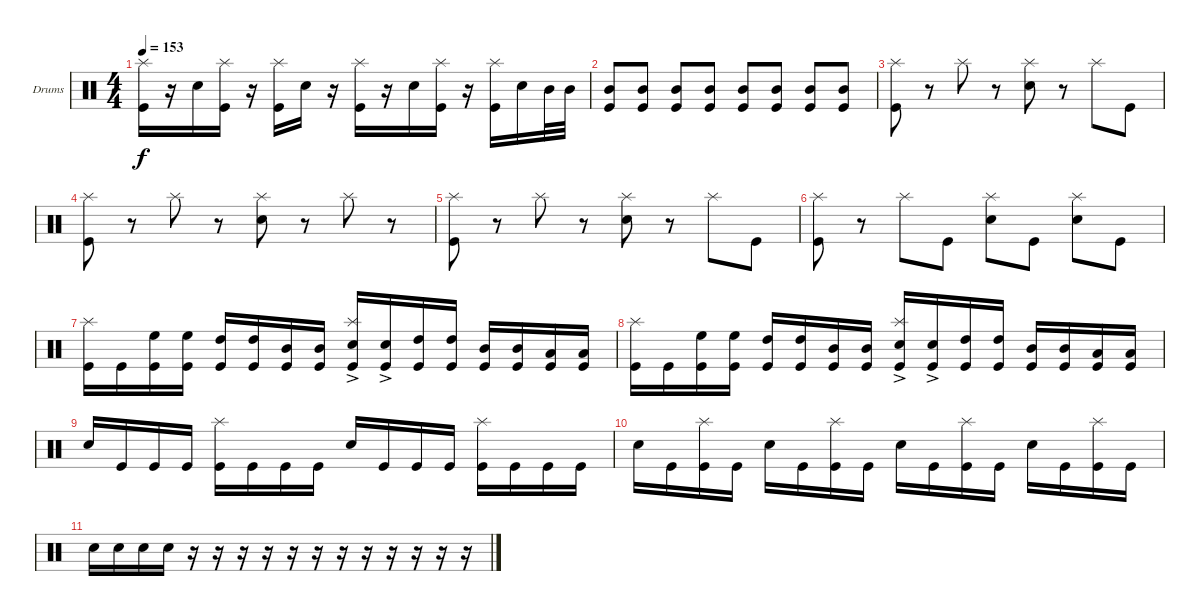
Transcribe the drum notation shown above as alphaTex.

\bracketExtendMode groupsimilarinstruments
\firstSystemTrackNameOrientation horizontal
\otherSystemsTrackNameOrientation horizontal
\track ("Drumkit" "Drums") {instrument percussion}
\staff {score}
\articulation defaults
\ts (4 4)
\tempo 153
\clef neutral
\ks c
("Kick (hit)" "Splash (hit)").16{dy f} r.16 "Snare (hit) 2".16 ("Kick (hit)" "Splash (hit)").16 r.16 ("Kick (hit)" "Splash (hit)").16 "Snare (hit) 2".16 r.16 ("Kick (hit)" "Splash (hit)").16 r.16 "Snare (hit) 2".16 ("Kick (hit)" "Splash (hit)").16 r.16 ("Kick (hit)" "Splash (hit)").16 "Snare (hit) 2".16 "Mid Tom (hit)".32 "Mid Tom (hit)".32 |
("Mid Tom (hit)" "Kick (hit)").8 ("Mid Tom (hit)" "Kick (hit)").8 ("Mid Tom (hit)" "Kick (hit)").8 ("Mid Tom (hit)" "Kick (hit)").8 ("Mid Tom (hit)" "Kick (hit)").8 ("Mid Tom (hit)" "Kick (hit)").8 ("Mid Tom (hit)" "Kick (hit)").8 ("Mid Tom (hit)" "Kick (hit)").8 |
("Kick (hit)" "Splash (hit)").8 r.8 "Splash (hit)".8 r.8 ("Snare (hit) 2" "Splash (hit)").8 r.8 "Splash (hit)".8 "Kick (hit)".8 |
("Kick (hit)" "Splash (hit)").8 r.8 "Splash (hit)".8 r.8 ("Snare (hit) 2" "Splash (hit)").8 r.8 "Splash (hit)".8 r.8 |
("Kick (hit)" "Splash (hit)").8 r.8 "Splash (hit)".8 r.8 ("Snare (hit) 2" "Splash (hit)").8 r.8 "Splash (hit)".8 "Kick (hit)".8 |
("Kick (hit)" "Splash (hit)").8 r.8 "Splash (hit)".8 "Kick (hit)".8 ("Snare (hit) 2" "Splash (hit)").8 "Kick (hit)".8 ("Splash (hit)" "Snare (hit) 2").8 "Kick (hit)".8 |
("Kick (hit)" "Splash (hit)").16 "Kick (hit)".16 ("Kick (hit)" "High Floor Tom (hit)").16 ("Kick (hit)" "High Floor Tom (hit)").16 ("Kick (hit)" "High Tom (hit)").16 ("Kick (hit)" "High Tom (hit)").16 ("Kick (hit)" "Mid Tom (hit)").16 ("Kick (hit)" "Mid Tom (hit)").16 ("Snare (hit) 2"{ac} "Splash (hit)" "Kick (hit)").16 ("Kick (hit)" "Snare (hit) 2"{ac}).16 ("Kick (hit)" "High Tom (hit)").16 ("Kick (hit)" "High Tom (hit)").16 ("Kick (hit)" "Mid Tom (hit)").16 ("Kick (hit)" "Mid Tom (hit)").16 ("Kick (hit)" "Low Tom (hit)").16 ("Kick (hit)" "Low Tom (hit)").16 |
("Kick (hit)" "Splash (hit)").16 "Kick (hit)".16 ("Kick (hit)" "High Floor Tom (hit)").16 ("Kick (hit)" "High Floor Tom (hit)").16 ("Kick (hit)" "High Tom (hit)").16 ("Kick (hit)" "High Tom (hit)").16 ("Kick (hit)" "Mid Tom (hit)").16 ("Kick (hit)" "Mid Tom (hit)").16 ("Snare (hit) 2"{ac} "Splash (hit)" "Kick (hit)").16 ("Kick (hit)" "Snare (hit) 2"{ac}).16 ("Kick (hit)" "High Tom (hit)").16 ("Kick (hit)" "High Tom (hit)").16 ("Kick (hit)" "Mid Tom (hit)").16 ("Kick (hit)" "Mid Tom (hit)").16 ("Kick (hit)" "Low Tom (hit)").16 ("Kick (hit)" "Low Tom (hit)").16 |
"Snare (hit) 2".16 "Kick (hit)".16 "Kick (hit)".16 "Kick (hit)".16 ("Kick (hit)" "Splash (hit)").16 "Kick (hit)".16 "Kick (hit)".16 "Kick (hit)".16 "Snare (hit) 2".16 "Kick (hit)".16 "Kick (hit)".16 "Kick (hit)".16 ("Kick (hit)" "Splash (hit)").16 "Kick (hit)".16 "Kick (hit)".16 "Kick (hit)".16 |
"Snare (hit) 2".16 "Kick (hit)".16 ("Kick (hit)" "Splash (hit)").16 "Kick (hit)".16 "Snare (hit) 2".16 "Kick (hit)".16 ("Kick (hit)" "Splash (hit)").16 "Kick (hit)".16 "Snare (hit) 2".16 "Kick (hit)".16 ("Kick (hit)" "Splash (hit)").16 "Kick (hit)".16 "Snare (hit) 2".16 "Kick (hit)".16 ("Kick (hit)" "Splash (hit)").16 "Kick (hit)".16 |
"Snare (hit) 2".16 "Snare (hit) 2".16 "Snare (hit) 2".16 "Snare (hit) 2".16 r.16 r.16 r.16 r.16 r.16 r.16 r.16 r.16 r.16 r.16 r.16 r.16
